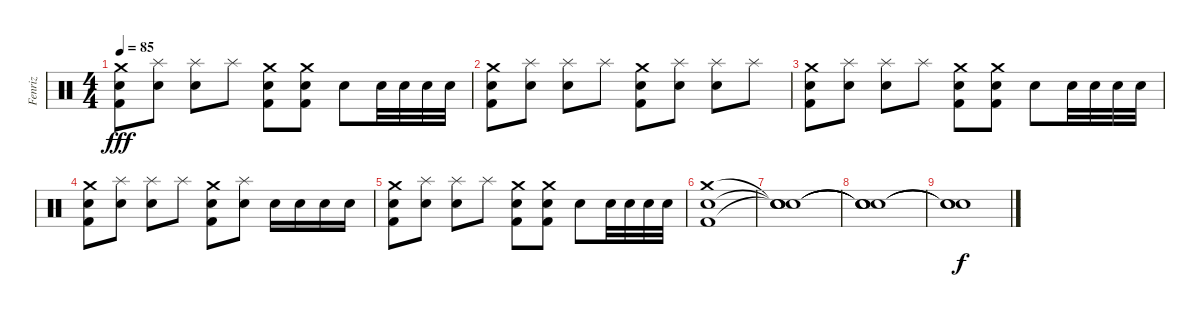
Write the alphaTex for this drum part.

\track ("Fenriz" "Fenriz") {instrument percussion}
\staff {score}
\articulation defaults
\ts (4 4)
\tempo 85
\clef neutral
\ks c
("Crash medium (hit)" "Snare (hit) 2" "Kick (hit) 2").8{dy fff} ("Splash (hit)" "Snare (hit) 2").8 ("Splash (hit)" "Snare (hit) 2").8 "Splash (hit)".8 ("Crash medium (hit)" "Snare (hit) 2" "Kick (hit) 2").8 ("Crash medium (hit)" "Snare (hit) 2" "Kick (hit) 2").8 "Snare (hit) 2".8 "Snare (hit) 2".32 "Snare (hit) 2".32 "Snare (hit) 2".32 "Snare (hit) 2".32 |
("Crash medium (hit)" "Snare (hit) 2" "Kick (hit) 2").8 ("Splash (hit)" "Snare (hit) 2").8 ("Splash (hit)" "Snare (hit) 2").8 "Splash (hit)".8 ("Crash medium (hit)" "Snare (hit) 2" "Kick (hit) 2").8 ("Splash (hit)" "Snare (hit) 2").8 ("Splash (hit)" "Snare (hit) 2").8 "Splash (hit)".8 |
("Crash medium (hit)" "Snare (hit) 2" "Kick (hit) 2").8 ("Splash (hit)" "Snare (hit) 2").8 ("Splash (hit)" "Snare (hit) 2").8 "Splash (hit)".8 ("Crash medium (hit)" "Snare (hit) 2" "Kick (hit) 2").8 ("Crash medium (hit)" "Snare (hit) 2" "Kick (hit) 2").8 "Snare (hit) 2".8 "Snare (hit) 2".32 "Snare (hit) 2".32 "Snare (hit) 2".32 "Snare (hit) 2".32 |
("Crash medium (hit)" "Snare (hit) 2" "Kick (hit) 2").8 ("Splash (hit)" "Snare (hit) 2").8 ("Splash (hit)" "Snare (hit) 2").8 "Splash (hit)".8 ("Crash medium (hit)" "Snare (hit) 2" "Kick (hit) 2").8 ("Splash (hit)" "Snare (hit) 2").8 "Snare (hit) 2".16 "Snare (hit) 2".16 "Snare (hit) 2".16 "Snare (hit) 2".16 |
("Crash medium (hit)" "Snare (hit) 2" "Kick (hit) 2").8 ("Splash (hit)" "Snare (hit) 2").8 ("Splash (hit)" "Snare (hit) 2").8 "Splash (hit)".8 ("Crash medium (hit)" "Snare (hit) 2" "Kick (hit) 2").8 ("Crash medium (hit)" "Snare (hit) 2" "Kick (hit) 2").8 "Snare (hit) 2".8 "Snare (hit) 2".32 "Snare (hit) 2".32 "Snare (hit) 2".32 "Snare (hit) 2".32 |
("Crash medium (hit)" "Snare (hit) 2" "Kick (hit) 2").1 |
("Snare (hit)"{t} "Snare (hit)"{t} "Snare (hit)"{t} "Snare (hit)").1 |
("Snare (hit)"{t} "Snare (hit)"{t} "Snare (hit)"{t} "Snare (hit)"{t}).1 |
("Snare (hit)"{t} "Snare (hit)"{t} "Snare (hit)"{t}).1{dy f}
